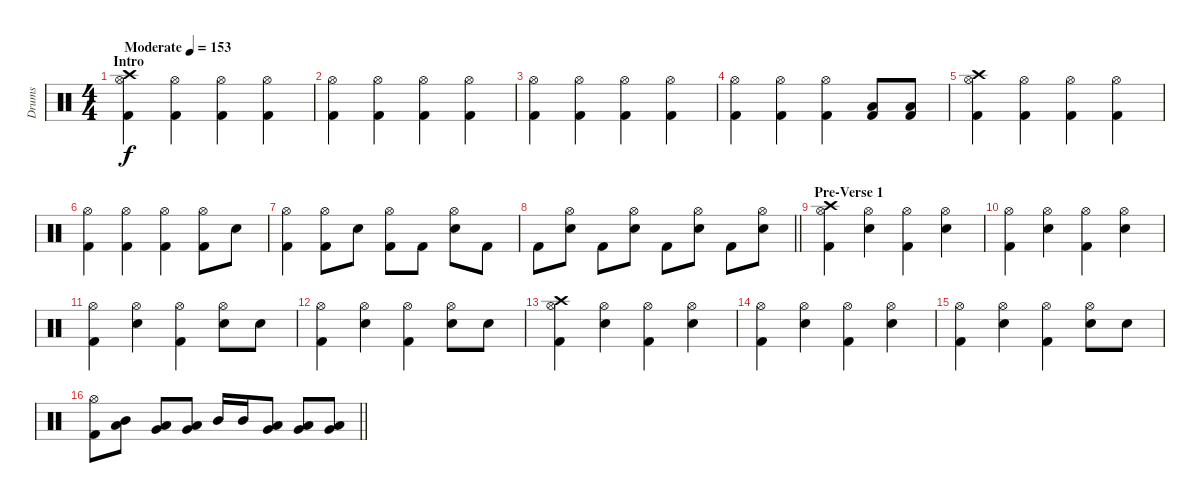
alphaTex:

\track ("Drums" "Drums") {instrument percussion}
\staff {score}
\articulation defaults
\ts (4 4)
\section ("" "Intro")
\tempo (153 "Moderate")
\clef neutral
\ks c
("Crash high (hit)" "Hi-Hat (open)" "Kick (hit) 2").4{dy f} ("Hi-Hat (open)" "Kick (hit) 2").4 ("Hi-Hat (open)" "Kick (hit) 2").4 ("Hi-Hat (open)" "Kick (hit) 2").4 |
("Hi-Hat (open)" "Kick (hit) 2").4 ("Hi-Hat (open)" "Kick (hit) 2").4 ("Hi-Hat (open)" "Kick (hit) 2").4 ("Hi-Hat (open)" "Kick (hit) 2").4 |
("Hi-Hat (open)" "Kick (hit) 2").4 ("Hi-Hat (open)" "Kick (hit) 2").4 ("Hi-Hat (open)" "Kick (hit) 2").4 ("Hi-Hat (open)" "Kick (hit) 2").4 |
("Hi-Hat (open)" "Kick (hit) 2").4 ("Hi-Hat (open)" "Kick (hit) 2").4 ("Hi-Hat (open)" "Kick (hit) 2").4 ("Low Tom (hit)" "Kick (hit) 2").8 ("Low Tom (hit)" "Kick (hit) 2").8 |
("Crash high (hit)" "Hi-Hat (open)" "Kick (hit) 2").4 ("Hi-Hat (open)" "Kick (hit) 2").4 ("Hi-Hat (open)" "Kick (hit) 2").4 ("Hi-Hat (open)" "Kick (hit) 2").4 |
("Hi-Hat (open)" "Kick (hit) 2").4 ("Hi-Hat (open)" "Kick (hit) 2").4 ("Hi-Hat (open)" "Kick (hit) 2").4 ("Hi-Hat (open)" "Kick (hit) 2").8 "Electric Snare (hit)".8 |
("Hi-Hat (open)" "Kick (hit) 2").4 ("Hi-Hat (open)" "Kick (hit) 2").8 "Electric Snare (hit)".8 ("Hi-Hat (open)" "Kick (hit) 2").8 "Kick (hit) 2".8 ("Hi-Hat (open)" "Electric Snare (hit)").8 "Kick (hit) 2".8 |
\barLineRight lightlight "Kick (hit) 2".8
("Hi-Hat (open)" "Electric Snare (hit)").8 "Kick (hit) 2".8 ("Hi-Hat (open)" "Electric Snare (hit)").8 "Kick (hit) 2".8 ("Hi-Hat (open)" "Electric Snare (hit)").8 "Kick (hit) 2".8 ("Hi-Hat (open)" "Electric Snare (hit)").8 |
\section ("" "Pre-Verse 1")
("Crash high (hit)" "Hi-Hat (open)" "Kick (hit) 2").4 ("Hi-Hat (open)" "Electric Snare (hit)").4 ("Hi-Hat (open)" "Kick (hit) 2").4 ("Hi-Hat (open)" "Electric Snare (hit)").4 |
("Hi-Hat (open)" "Kick (hit) 2").4 ("Hi-Hat (open)" "Electric Snare (hit)").4 ("Hi-Hat (open)" "Kick (hit) 2").4 ("Hi-Hat (open)" "Electric Snare (hit)").4 |
("Hi-Hat (open)" "Kick (hit) 2").4 ("Hi-Hat (open)" "Electric Snare (hit)").4 ("Hi-Hat (open)" "Kick (hit) 2").4 ("Hi-Hat (open)" "Electric Snare (hit)").8 "Electric Snare (hit)".8 |
("Hi-Hat (open)" "Kick (hit) 2").4 ("Hi-Hat (open)" "Electric Snare (hit)").4 ("Hi-Hat (open)" "Kick (hit) 2").4 ("Hi-Hat (open)" "Electric Snare (hit)").8 "Electric Snare (hit)".8 |
("Crash high (hit)" "Hi-Hat (open)" "Kick (hit) 2").4 ("Hi-Hat (open)" "Electric Snare (hit)").4 ("Hi-Hat (open)" "Kick (hit) 2").4 ("Hi-Hat (open)" "Electric Snare (hit)").4 |
("Hi-Hat (open)" "Kick (hit) 2").4 ("Hi-Hat (open)" "Electric Snare (hit)").4 ("Hi-Hat (open)" "Kick (hit) 2").4 ("Hi-Hat (open)" "Electric Snare (hit)").4 |
("Hi-Hat (open)" "Kick (hit) 2").4 ("Hi-Hat (open)" "Electric Snare (hit)").4 ("Hi-Hat (open)" "Kick (hit) 2").4 ("Hi-Hat (open)" "Electric Snare (hit)").8 "Electric Snare (hit)".8 |
\barLineRight lightlight
("Hi-Hat (open)" "Kick (hit) 2").8 ("Low Tom (hit)" "Mid Tom (hit)").8 ("Very Low Tom (hit)" "Low Tom (hit)").8 ("Low Floor Tom (hit)" "Very Low Tom (hit)").8 "Mid Tom (hit)".16 "Mid Tom (hit)".16 ("Very Low Tom (hit)" "Low Tom (hit)").8 ("Very Low Tom (hit)" "Low Tom (hit)").8 ("Low Floor Tom (hit)" "Very Low Tom (hit)").8
